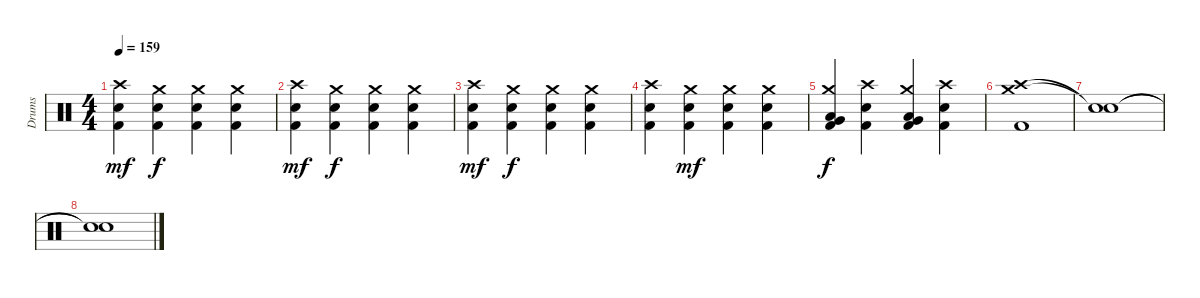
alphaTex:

\track ("Drums" "Drums") {instrument percussion}
\staff {score}
\articulation defaults
\ts (4 4)
\tempo 159
\clef neutral
\ks c
("Crash high (hit)" "Snare (hit) 2" "Kick (hit) 2").4{dy mf} ("Crash medium (hit)" "Snare (hit) 2" "Kick (hit) 2").4{dy f} ("Crash medium (hit)" "Snare (hit) 2" "Kick (hit) 2").4 ("Crash medium (hit)" "Snare (hit) 2" "Kick (hit) 2").4 |
("Crash high (hit)" "Snare (hit) 2" "Kick (hit) 2").4{dy mf} ("Crash medium (hit)" "Snare (hit) 2" "Kick (hit) 2").4{dy f} ("Crash medium (hit)" "Snare (hit) 2" "Kick (hit) 2").4 ("Crash medium (hit)" "Snare (hit) 2" "Kick (hit) 2").4 |
("Crash high (hit)" "Snare (hit) 2" "Kick (hit) 2").4{dy mf} ("Crash medium (hit)" "Snare (hit) 2" "Kick (hit) 2").4{dy f} ("Crash medium (hit)" "Snare (hit) 2" "Kick (hit) 2").4 ("Crash medium (hit)" "Snare (hit) 2" "Kick (hit) 2").4 |
("Crash high (hit)" "Snare (hit) 2" "Kick (hit) 2").4 ("Crash medium (hit)" "Snare (hit) 2" "Kick (hit) 2").4{dy mf} ("Crash medium (hit)" "Snare (hit) 2" "Kick (hit) 2").4 ("Crash medium (hit)" "Snare (hit) 2" "Kick (hit) 2").4 |
("Crash medium (hit)" "Low Tom (hit)" "Very Low Tom (hit)" "Kick (hit) 2").4{dy f} ("Crash high (hit)" "Snare (hit) 2" "Kick (hit) 2").4 ("Crash medium (hit)" "Low Tom (hit)" "Very Low Tom (hit)" "Kick (hit) 2").4 ("Crash high (hit)" "Snare (hit) 2" "Kick (hit) 2").4 |
("Crash medium (hit)" "Crash high (hit)" "Kick (hit) 2").1 |
("Snare (hit)"{t} "Snare (hit)"{t}).1 |
("Snare (hit)"{t} "Snare (hit)"{t}).1
